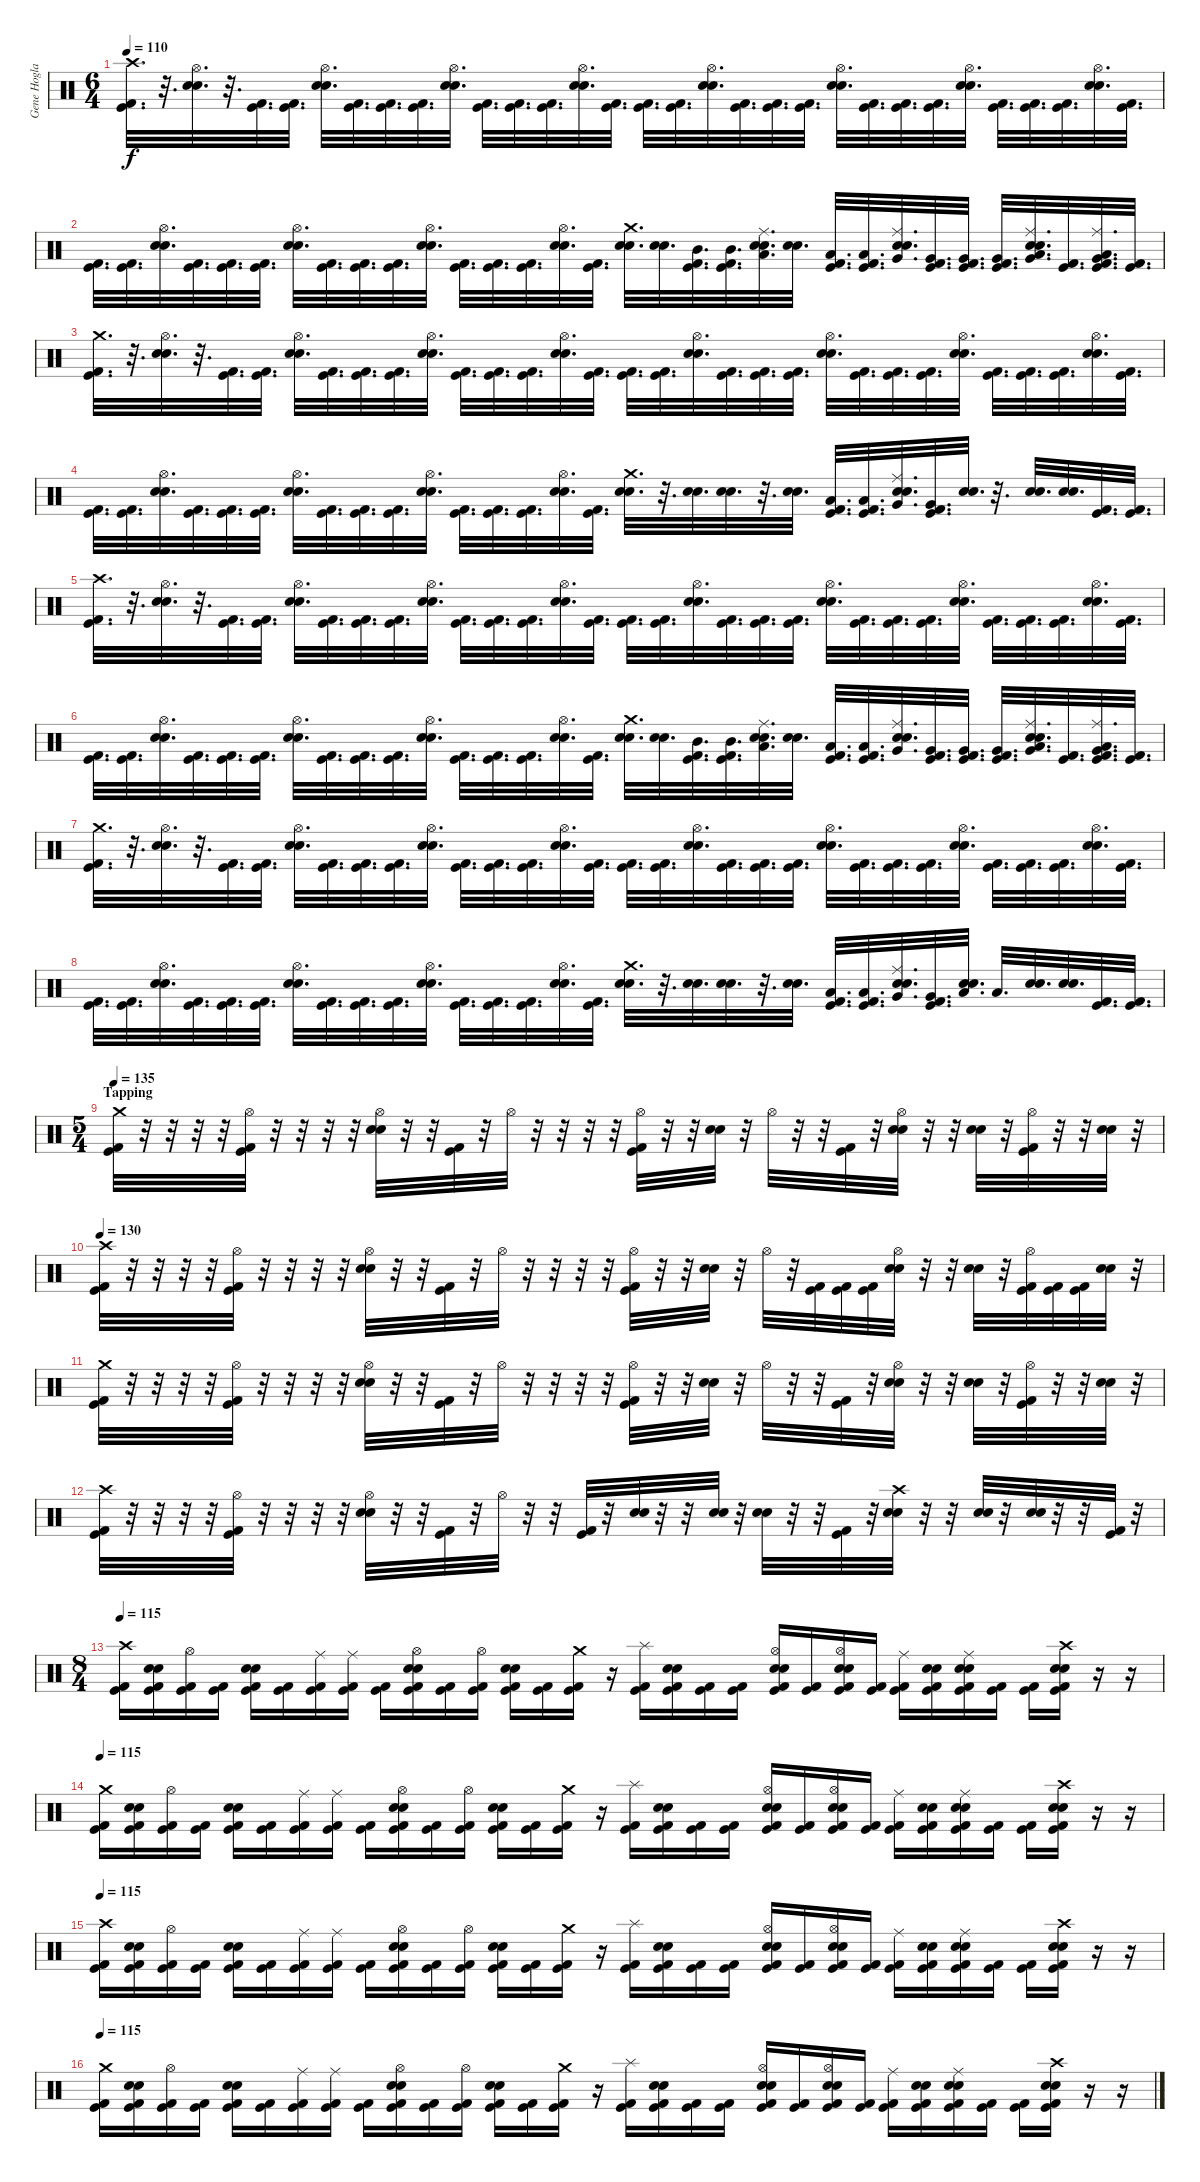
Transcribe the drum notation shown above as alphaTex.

\track ("Gene Hoglan" "Gene Hogla") {instrument percussion}
\staff {score}
\articulation defaults
\ts (6 4)
\tempo 110
\clef neutral
\ks c
("Crash high (hit)" "Kick (hit) 2" "Kick (hit)").32{d dy f} r.32{d} ("Hi-Hat (open)" "Snare (hit) 2" "Electric Snare (hit)").32{d} r.32{d} ("Kick (hit) 2" "Kick (hit)").32{d} ("Kick (hit) 2" "Kick (hit)").32{d} ("Hi-Hat (open)" "Snare (hit) 2" "Electric Snare (hit)").32{d} ("Kick (hit) 2" "Kick (hit)").32{d} ("Kick (hit) 2" "Kick (hit)").32{d} ("Kick (hit) 2" "Kick (hit)").32{d} ("Hi-Hat (open)" "Snare (hit) 2" "Electric Snare (hit)").32{d} ("Kick (hit) 2" "Kick (hit)").32{d} ("Kick (hit) 2" "Kick (hit)").32{d} ("Kick (hit) 2" "Kick (hit)").32{d} ("Hi-Hat (open)" "Snare (hit) 2" "Electric Snare (hit)").32{d} ("Kick (hit) 2" "Kick (hit)").32{d} ("Kick (hit) 2" "Kick (hit)").32{d} ("Kick (hit) 2" "Kick (hit)").32{d} ("Hi-Hat (open)" "Snare (hit) 2" "Electric Snare (hit)").32{d} ("Kick (hit) 2" "Kick (hit)").32{d} ("Kick (hit) 2" "Kick (hit)").32{d} ("Kick (hit) 2" "Kick (hit)").32{d} ("Hi-Hat (open)" "Snare (hit) 2" "Electric Snare (hit)").32{d} ("Kick (hit) 2" "Kick (hit)").32{d} ("Kick (hit) 2" "Kick (hit)").32{d} ("Kick (hit) 2" "Kick (hit)").32{d} ("Hi-Hat (open)" "Snare (hit) 2" "Electric Snare (hit)").32{d} ("Kick (hit) 2" "Kick (hit)").32{d} ("Kick (hit) 2" "Kick (hit)").32{d} ("Kick (hit) 2" "Kick (hit)").32{d} ("Hi-Hat (open)" "Snare (hit) 2" "Electric Snare (hit)").32{d} ("Kick (hit) 2" "Kick (hit)").32{d} |
("Kick (hit) 2" "Kick (hit)").32{d} ("Kick (hit) 2" "Kick (hit)").32{d} ("Hi-Hat (open)" "Snare (hit) 2" "Electric Snare (hit)").32{d} ("Kick (hit) 2" "Kick (hit)").32{d} ("Kick (hit) 2" "Kick (hit)").32{d} ("Kick (hit) 2" "Kick (hit)").32{d} ("Hi-Hat (open)" "Snare (hit) 2" "Electric Snare (hit)").32{d} ("Kick (hit) 2" "Kick (hit)").32{d} ("Kick (hit) 2" "Kick (hit)").32{d} ("Kick (hit) 2" "Kick (hit)").32{d} ("Hi-Hat (open)" "Snare (hit) 2" "Electric Snare (hit)").32{d} ("Kick (hit) 2" "Kick (hit)").32{d} ("Kick (hit) 2" "Kick (hit)").32{d} ("Kick (hit) 2" "Kick (hit)").32{d} ("Hi-Hat (open)" "Snare (hit) 2" "Electric Snare (hit)").32{d} ("Kick (hit) 2" "Kick (hit)").32{d} ("Crash medium (hit)" "Snare (hit) 2" "Electric Snare (hit)").32{d} ("Snare (hit) 2" "Electric Snare (hit)").32{d} ("Mid Tom (hit)" "Kick (hit)" "Kick (hit) 2").32{d} ("Mid Tom (hit)" "Kick (hit) 2" "Kick (hit)").32{d} ("Ride (middle)" "Low Tom (hit)" "Snare (hit) 2" "Electric Snare (hit)").32{d} ("Snare (hit) 2" "Electric Snare (hit)").32{d} ("Low Tom (hit)" "Kick (hit) 2" "Kick (hit)").32{d} ("Low Tom (hit)" "Kick (hit) 2" "Kick (hit)").32{d} ("Ride (middle)" "Very Low Tom (hit)" "Snare (hit) 2" "Electric Snare (hit)").32{d} ("Very Low Tom (hit)" "Kick (hit) 2" "Kick (hit)").32{d} ("Very Low Tom (hit)" "Kick (hit) 2" "Kick (hit)").32{d} ("Very Low Tom (hit)" "Kick (hit) 2" "Kick (hit)").32{d} ("Ride (middle)" "Very Low Tom (hit)" "Low Floor Tom (hit)" "Snare (hit) 2" "Electric Snare (hit)").32{d} ("Kick (hit) 2" "Kick (hit)").32{d} ("Ride (middle)" "Very Low Tom (hit)" "Low Floor Tom (hit)" "Kick (hit) 2" "Kick (hit)").32{d} ("Kick (hit) 2" "Kick (hit)").32{d} |
("Crash medium (hit)" "Kick (hit) 2" "Kick (hit)").32{d} r.32{d} ("Hi-Hat (open)" "Snare (hit) 2" "Electric Snare (hit)").32{d} r.32{d} ("Kick (hit) 2" "Kick (hit)").32{d} ("Kick (hit) 2" "Kick (hit)").32{d} ("Hi-Hat (open)" "Snare (hit) 2" "Electric Snare (hit)").32{d} ("Kick (hit) 2" "Kick (hit)").32{d} ("Kick (hit) 2" "Kick (hit)").32{d} ("Kick (hit) 2" "Kick (hit)").32{d} ("Hi-Hat (open)" "Snare (hit) 2" "Electric Snare (hit)").32{d} ("Kick (hit) 2" "Kick (hit)").32{d} ("Kick (hit) 2" "Kick (hit)").32{d} ("Kick (hit) 2" "Kick (hit)").32{d} ("Hi-Hat (open)" "Snare (hit) 2" "Electric Snare (hit)").32{d} ("Kick (hit) 2" "Kick (hit)").32{d} ("Kick (hit) 2" "Kick (hit)").32{d} ("Kick (hit) 2" "Kick (hit)").32{d} ("Hi-Hat (open)" "Snare (hit) 2" "Electric Snare (hit)").32{d} ("Kick (hit) 2" "Kick (hit)").32{d} ("Kick (hit) 2" "Kick (hit)").32{d} ("Kick (hit) 2" "Kick (hit)").32{d} ("Hi-Hat (open)" "Snare (hit) 2" "Electric Snare (hit)").32{d} ("Kick (hit) 2" "Kick (hit)").32{d} ("Kick (hit) 2" "Kick (hit)").32{d} ("Kick (hit) 2" "Kick (hit)").32{d} ("Hi-Hat (open)" "Snare (hit) 2" "Electric Snare (hit)").32{d} ("Kick (hit) 2" "Kick (hit)").32{d} ("Kick (hit) 2" "Kick (hit)").32{d} ("Kick (hit) 2" "Kick (hit)").32{d} ("Hi-Hat (open)" "Snare (hit) 2" "Electric Snare (hit)").32{d} ("Kick (hit) 2" "Kick (hit)").32{d} |
("Kick (hit) 2" "Kick (hit)").32{d} ("Kick (hit) 2" "Kick (hit)").32{d} ("Hi-Hat (open)" "Snare (hit) 2" "Electric Snare (hit)").32{d} ("Kick (hit) 2" "Kick (hit)").32{d} ("Kick (hit) 2" "Kick (hit)").32{d} ("Kick (hit) 2" "Kick (hit)").32{d} ("Hi-Hat (open)" "Snare (hit) 2" "Electric Snare (hit)").32{d} ("Kick (hit) 2" "Kick (hit)").32{d} ("Kick (hit) 2" "Kick (hit)").32{d} ("Kick (hit) 2" "Kick (hit)").32{d} ("Hi-Hat (open)" "Snare (hit) 2" "Electric Snare (hit)").32{d} ("Kick (hit) 2" "Kick (hit)").32{d} ("Kick (hit) 2" "Kick (hit)").32{d} ("Kick (hit) 2" "Kick (hit)").32{d} ("Hi-Hat (open)" "Snare (hit) 2" "Electric Snare (hit)").32{d} ("Kick (hit) 2" "Kick (hit)").32{d} ("Crash medium (hit)" "Snare (hit) 2" "Electric Snare (hit)").32{d} r.32{d} ("Snare (hit) 2" "Electric Snare (hit)").32{d} ("Snare (hit) 2" "Electric Snare (hit)").32{d} r.32{d} ("Snare (hit) 2" "Electric Snare (hit)").32{d} ("Low Tom (hit)" "Kick (hit) 2" "Kick (hit)").32{d} ("Low Tom (hit)" "Kick (hit) 2" "Kick (hit)").32{d} ("Ride (middle)" "Very Low Tom (hit)" "Snare (hit) 2" "Electric Snare (hit)").32{d} ("Very Low Tom (hit)" "Kick (hit) 2" "Kick (hit)").32{d} ("Snare (hit) 2" "Electric Snare (hit)").32{d} r.32{d} ("Snare (hit) 2" "Electric Snare (hit)").32{d} ("Snare (hit) 2" "Electric Snare (hit)").32{d} ("Kick (hit) 2" "Kick (hit)").32{d} ("Kick (hit) 2" "Kick (hit)").32{d} |
("Crash high (hit)" "Kick (hit) 2" "Kick (hit)").32{d} r.32{d} ("Hi-Hat (open)" "Snare (hit) 2" "Electric Snare (hit)").32{d} r.32{d} ("Kick (hit) 2" "Kick (hit)").32{d} ("Kick (hit) 2" "Kick (hit)").32{d} ("Hi-Hat (open)" "Snare (hit) 2" "Electric Snare (hit)").32{d} ("Kick (hit) 2" "Kick (hit)").32{d} ("Kick (hit) 2" "Kick (hit)").32{d} ("Kick (hit) 2" "Kick (hit)").32{d} ("Hi-Hat (open)" "Snare (hit) 2" "Electric Snare (hit)").32{d} ("Kick (hit) 2" "Kick (hit)").32{d} ("Kick (hit) 2" "Kick (hit)").32{d} ("Kick (hit) 2" "Kick (hit)").32{d} ("Hi-Hat (open)" "Snare (hit) 2" "Electric Snare (hit)").32{d} ("Kick (hit) 2" "Kick (hit)").32{d} ("Kick (hit) 2" "Kick (hit)").32{d} ("Kick (hit) 2" "Kick (hit)").32{d} ("Hi-Hat (open)" "Snare (hit) 2" "Electric Snare (hit)").32{d} ("Kick (hit) 2" "Kick (hit)").32{d} ("Kick (hit) 2" "Kick (hit)").32{d} ("Kick (hit) 2" "Kick (hit)").32{d} ("Hi-Hat (open)" "Snare (hit) 2" "Electric Snare (hit)").32{d} ("Kick (hit) 2" "Kick (hit)").32{d} ("Kick (hit) 2" "Kick (hit)").32{d} ("Kick (hit) 2" "Kick (hit)").32{d} ("Hi-Hat (open)" "Snare (hit) 2" "Electric Snare (hit)").32{d} ("Kick (hit) 2" "Kick (hit)").32{d} ("Kick (hit) 2" "Kick (hit)").32{d} ("Kick (hit) 2" "Kick (hit)").32{d} ("Hi-Hat (open)" "Snare (hit) 2" "Electric Snare (hit)").32{d} ("Kick (hit) 2" "Kick (hit)").32{d} |
("Kick (hit) 2" "Kick (hit)").32{d} ("Kick (hit) 2" "Kick (hit)").32{d} ("Hi-Hat (open)" "Snare (hit) 2" "Electric Snare (hit)").32{d} ("Kick (hit) 2" "Kick (hit)").32{d} ("Kick (hit) 2" "Kick (hit)").32{d} ("Kick (hit) 2" "Kick (hit)").32{d} ("Hi-Hat (open)" "Snare (hit) 2" "Electric Snare (hit)").32{d} ("Kick (hit) 2" "Kick (hit)").32{d} ("Kick (hit) 2" "Kick (hit)").32{d} ("Kick (hit) 2" "Kick (hit)").32{d} ("Hi-Hat (open)" "Snare (hit) 2" "Electric Snare (hit)").32{d} ("Kick (hit) 2" "Kick (hit)").32{d} ("Kick (hit) 2" "Kick (hit)").32{d} ("Kick (hit) 2" "Kick (hit)").32{d} ("Hi-Hat (open)" "Snare (hit) 2" "Electric Snare (hit)").32{d} ("Kick (hit) 2" "Kick (hit)").32{d} ("Crash medium (hit)" "Snare (hit) 2" "Electric Snare (hit)").32{d} ("Snare (hit) 2" "Electric Snare (hit)").32{d} ("Mid Tom (hit)" "Kick (hit)" "Kick (hit) 2").32{d} ("Mid Tom (hit)" "Kick (hit) 2" "Kick (hit)").32{d} ("Ride (middle)" "Low Tom (hit)" "Snare (hit) 2" "Electric Snare (hit)").32{d} ("Snare (hit) 2" "Electric Snare (hit)").32{d} ("Low Tom (hit)" "Kick (hit) 2" "Kick (hit)").32{d} ("Low Tom (hit)" "Kick (hit) 2" "Kick (hit)").32{d} ("Ride (middle)" "Very Low Tom (hit)" "Snare (hit) 2" "Electric Snare (hit)").32{d} ("Very Low Tom (hit)" "Kick (hit) 2" "Kick (hit)").32{d} ("Very Low Tom (hit)" "Kick (hit) 2" "Kick (hit)").32{d} ("Very Low Tom (hit)" "Kick (hit) 2" "Kick (hit)").32{d} ("Ride (middle)" "Very Low Tom (hit)" "Low Floor Tom (hit)" "Snare (hit) 2" "Electric Snare (hit)").32{d} ("Kick (hit) 2" "Kick (hit)").32{d} ("Ride (middle)" "Very Low Tom (hit)" "Low Floor Tom (hit)" "Kick (hit) 2" "Kick (hit)").32{d} ("Kick (hit) 2" "Kick (hit)").32{d} |
("Crash medium (hit)" "Kick (hit) 2" "Kick (hit)").32{d} r.32{d} ("Hi-Hat (open)" "Snare (hit) 2" "Electric Snare (hit)").32{d} r.32{d} ("Kick (hit) 2" "Kick (hit)").32{d} ("Kick (hit) 2" "Kick (hit)").32{d} ("Hi-Hat (open)" "Snare (hit) 2" "Electric Snare (hit)").32{d} ("Kick (hit) 2" "Kick (hit)").32{d} ("Kick (hit) 2" "Kick (hit)").32{d} ("Kick (hit) 2" "Kick (hit)").32{d} ("Hi-Hat (open)" "Snare (hit) 2" "Electric Snare (hit)").32{d} ("Kick (hit) 2" "Kick (hit)").32{d} ("Kick (hit) 2" "Kick (hit)").32{d} ("Kick (hit) 2" "Kick (hit)").32{d} ("Hi-Hat (open)" "Snare (hit) 2" "Electric Snare (hit)").32{d} ("Kick (hit) 2" "Kick (hit)").32{d} ("Kick (hit) 2" "Kick (hit)").32{d} ("Kick (hit) 2" "Kick (hit)").32{d} ("Hi-Hat (open)" "Snare (hit) 2" "Electric Snare (hit)").32{d} ("Kick (hit) 2" "Kick (hit)").32{d} ("Kick (hit) 2" "Kick (hit)").32{d} ("Kick (hit) 2" "Kick (hit)").32{d} ("Hi-Hat (open)" "Snare (hit) 2" "Electric Snare (hit)").32{d} ("Kick (hit) 2" "Kick (hit)").32{d} ("Kick (hit) 2" "Kick (hit)").32{d} ("Kick (hit) 2" "Kick (hit)").32{d} ("Hi-Hat (open)" "Snare (hit) 2" "Electric Snare (hit)").32{d} ("Kick (hit) 2" "Kick (hit)").32{d} ("Kick (hit) 2" "Kick (hit)").32{d} ("Kick (hit) 2" "Kick (hit)").32{d} ("Hi-Hat (open)" "Snare (hit) 2" "Electric Snare (hit)").32{d} ("Kick (hit) 2" "Kick (hit)").32{d} |
("Kick (hit) 2" "Kick (hit)").32{d} ("Kick (hit) 2" "Kick (hit)").32{d} ("Hi-Hat (open)" "Snare (hit) 2" "Electric Snare (hit)").32{d} ("Kick (hit) 2" "Kick (hit)").32{d} ("Kick (hit) 2" "Kick (hit)").32{d} ("Kick (hit) 2" "Kick (hit)").32{d} ("Hi-Hat (open)" "Snare (hit) 2" "Electric Snare (hit)").32{d} ("Kick (hit) 2" "Kick (hit)").32{d} ("Kick (hit) 2" "Kick (hit)").32{d} ("Kick (hit) 2" "Kick (hit)").32{d} ("Hi-Hat (open)" "Snare (hit) 2" "Electric Snare (hit)").32{d} ("Kick (hit) 2" "Kick (hit)").32{d} ("Kick (hit) 2" "Kick (hit)").32{d} ("Kick (hit) 2" "Kick (hit)").32{d} ("Hi-Hat (open)" "Snare (hit) 2" "Electric Snare (hit)").32{d} ("Kick (hit) 2" "Kick (hit)").32{d} ("Crash medium (hit)" "Snare (hit) 2" "Electric Snare (hit)").32{d} r.32{d} ("Snare (hit) 2" "Electric Snare (hit)").32{d} ("Snare (hit) 2" "Electric Snare (hit)").32{d} r.32{d} ("Snare (hit) 2" "Electric Snare (hit)").32{d} ("Low Tom (hit)" "Kick (hit) 2" "Kick (hit)").32{d} ("Low Tom (hit)" "Kick (hit) 2" "Kick (hit)").32{d} ("Ride (middle)" "Very Low Tom (hit)" "Snare (hit) 2" "Electric Snare (hit)").32{d} ("Very Low Tom (hit)" "Kick (hit) 2" "Kick (hit)").32{d} ("Low Tom (hit)" "Snare (hit) 2" "Electric Snare (hit)").32{d} "Low Tom (hit)".32{d} ("Snare (hit) 2" "Electric Snare (hit)").32{d} ("Snare (hit) 2" "Electric Snare (hit)").32{d} ("Kick (hit) 2" "Kick (hit)").32{d} ("Kick (hit) 2" "Kick (hit)").32{d} |
\ts (5 4)
\section ("" "Tapping")
\tempo 130
\tempo 135
("Crash medium (hit)" "Kick (hit)" "Kick (hit) 2").32 r.32 r.32 r.32 r.32 ("Hi-Hat (open)" "Kick (hit)" "Kick (hit) 2").32 r.32 r.32 r.32 r.32 ("Hi-Hat (open)" "Snare (hit) 2" "Electric Snare (hit)").32 r.32 r.32 ("Kick (hit)" "Kick (hit) 2").32 r.32 "Hi-Hat (open)".32 r.32 r.32 r.32 r.32 ("Hi-Hat (open)" "Kick (hit)" "Kick (hit) 2").32 r.32 r.32 ("Snare (hit) 2" "Electric Snare (hit)").32 r.32 "Hi-Hat (open)".32 r.32 r.32 ("Kick (hit)" "Kick (hit) 2").32 r.32 ("Hi-Hat (open)" "Snare (hit) 2" "Electric Snare (hit)").32 r.32 r.32 ("Snare (hit) 2" "Electric Snare (hit)").32 r.32 ("Hi-Hat (open)" "Kick (hit)" "Kick (hit) 2").32 r.32 r.32 ("Snare (hit) 2" "Electric Snare (hit)").32 r.32 |
\tempo 130
("Crash high (hit)" "Kick (hit)" "Kick (hit) 2").32 r.32 r.32 r.32 r.32 ("Hi-Hat (open)" "Kick (hit)" "Kick (hit) 2").32 r.32 r.32 r.32 r.32 ("Hi-Hat (open)" "Snare (hit) 2" "Electric Snare (hit)").32 r.32 r.32 ("Kick (hit)" "Kick (hit) 2").32 r.32 "Hi-Hat (open)".32 r.32 r.32 r.32 r.32 ("Hi-Hat (open)" "Kick (hit)" "Kick (hit) 2").32 r.32 r.32 ("Snare (hit) 2" "Electric Snare (hit)").32 r.32 "Hi-Hat (open)".32 r.32 ("Kick (hit)" "Kick (hit) 2").32 ("Kick (hit)" "Kick (hit) 2").32 ("Kick (hit)" "Kick (hit) 2").32 ("Hi-Hat (open)" "Snare (hit) 2" "Electric Snare (hit)").32 r.32 r.32 ("Snare (hit) 2" "Electric Snare (hit)").32 r.32 ("Hi-Hat (open)" "Kick (hit)" "Kick (hit) 2").32 ("Kick (hit)" "Kick (hit) 2").32 ("Kick (hit)" "Kick (hit) 2").32 ("Snare (hit) 2" "Electric Snare (hit)").32 r.32 |
("Crash medium (hit)" "Kick (hit)" "Kick (hit) 2").32 r.32 r.32 r.32 r.32 ("Hi-Hat (open)" "Kick (hit)" "Kick (hit) 2").32 r.32 r.32 r.32 r.32 ("Hi-Hat (open)" "Snare (hit) 2" "Electric Snare (hit)").32 r.32 r.32 ("Kick (hit)" "Kick (hit) 2").32 r.32 "Hi-Hat (open)".32 r.32 r.32 r.32 r.32 ("Hi-Hat (open)" "Kick (hit)" "Kick (hit) 2").32 r.32 r.32 ("Snare (hit) 2" "Electric Snare (hit)").32 r.32 "Hi-Hat (open)".32 r.32 r.32 ("Kick (hit)" "Kick (hit) 2").32 r.32 ("Hi-Hat (open)" "Snare (hit) 2" "Electric Snare (hit)").32 r.32 r.32 ("Snare (hit) 2" "Electric Snare (hit)").32 r.32 ("Hi-Hat (open)" "Kick (hit)" "Kick (hit) 2").32 r.32 r.32 ("Snare (hit) 2" "Electric Snare (hit)").32 r.32 |
("Crash high (hit)" "Kick (hit)" "Kick (hit) 2").32 r.32 r.32 r.32 r.32 ("Hi-Hat (open)" "Kick (hit)" "Kick (hit) 2").32 r.32 r.32 r.32 r.32 ("Hi-Hat (open)" "Snare (hit) 2" "Electric Snare (hit)").32 r.32 r.32 ("Kick (hit)" "Kick (hit) 2").32 r.32 "Hi-Hat (open)".32 r.32 r.32 ("Kick (hit)" "Kick (hit) 2").32 r.32 ("Snare (hit) 2" "Electric Snare (hit)").32 r.32 r.32 ("Snare (hit) 2" "Electric Snare (hit)").32 r.32 ("Snare (hit) 2" "Electric Snare (hit)").32 r.32 r.32 ("Kick (hit)" "Kick (hit) 2").32 r.32 ("Crash high (hit)" "Snare (hit) 2" "Electric Snare (hit)").32 r.32 r.32 ("Snare (hit) 2" "Electric Snare (hit)").32 r.32 ("Snare (hit) 2" "Electric Snare (hit)").32 r.32 r.32 ("Kick (hit) 2" "Kick (hit)").32 r.32 |
\ts (8 4)
\tempo 115
("Crash high (hit)" "Kick (hit) 2" "Kick (hit)").16 ("Snare (hit) 2" "Electric Snare (hit)" "Kick (hit) 2" "Kick (hit)").16 ("Hi-Hat (open)" "Kick (hit) 2" "Kick (hit)").16 ("Kick (hit) 2" "Kick (hit)").16 ("Snare (hit) 2" "Electric Snare (hit)" "Kick (hit) 2" "Kick (hit)").16 ("Kick (hit) 2" "Kick (hit)").16 ("Ride (middle)" "Kick (hit) 2" "Kick (hit)").16 ("Ride (middle)" "Kick (hit) 2" "Kick (hit)").16 ("Kick (hit) 2" "Kick (hit)").16 ("Hi-Hat (open)" "Snare (hit) 2" "Electric Snare (hit)" "Kick (hit) 2" "Kick (hit)").16 ("Kick (hit) 2" "Kick (hit)").16 ("Hi-Hat (open)" "Kick (hit) 2" "Kick (hit)").16 ("Snare (hit) 2" "Electric Snare (hit)" "Kick (hit) 2" "Kick (hit)").16 ("Kick (hit) 2" "Kick (hit)").16 ("Crash medium (hit)" "Kick (hit) 2" "Kick (hit)").16 r.16 ("Splash (hit)" "Kick (hit) 2" "Kick (hit)").16 ("Snare (hit) 2" "Electric Snare (hit)" "Kick (hit) 2" "Kick (hit)").16 ("Kick (hit) 2" "Kick (hit)").16 ("Kick (hit) 2" "Kick (hit)").16 ("Hi-Hat (open)" "Snare (hit) 2" "Electric Snare (hit)" "Kick (hit) 2" "Kick (hit)").16 ("Kick (hit) 2" "Kick (hit)").16 ("Hi-Hat (open)" "Snare (hit) 2" "Electric Snare (hit)" "Kick (hit) 2" "Kick (hit)").16 ("Kick (hit) 2" "Kick (hit)").16 ("Ride (middle)" "Kick (hit) 2" "Kick (hit)").16 ("Snare (hit) 2" "Electric Snare (hit)" "Kick (hit) 2" "Kick (hit)").16 ("Ride (middle)" "Snare (hit) 2" "Electric Snare (hit)" "Kick (hit) 2" "Kick (hit)").16 ("Kick (hit) 2" "Kick (hit)").16 ("Kick (hit) 2" "Kick (hit)").16 ("Crash high (hit)" "Snare (hit) 2" "Electric Snare (hit)" "Kick (hit) 2" "Kick (hit)").16 r.16 r.16 |
\tempo 115
("Crash medium (hit)" "Kick (hit) 2" "Kick (hit)").16 ("Snare (hit) 2" "Electric Snare (hit)" "Kick (hit) 2" "Kick (hit)").16 ("Hi-Hat (open)" "Kick (hit) 2" "Kick (hit)").16 ("Kick (hit) 2" "Kick (hit)").16 ("Snare (hit) 2" "Electric Snare (hit)" "Kick (hit) 2" "Kick (hit)").16 ("Kick (hit) 2" "Kick (hit)").16 ("Ride (middle)" "Kick (hit) 2" "Kick (hit)").16 ("Ride (middle)" "Kick (hit) 2" "Kick (hit)").16 ("Kick (hit) 2" "Kick (hit)").16 ("Hi-Hat (open)" "Snare (hit) 2" "Electric Snare (hit)" "Kick (hit) 2" "Kick (hit)").16 ("Kick (hit) 2" "Kick (hit)").16 ("Hi-Hat (open)" "Kick (hit) 2" "Kick (hit)").16 ("Snare (hit) 2" "Electric Snare (hit)" "Kick (hit) 2" "Kick (hit)").16 ("Kick (hit) 2" "Kick (hit)").16 ("Crash medium (hit)" "Kick (hit) 2" "Kick (hit)").16 r.16 ("Splash (hit)" "Kick (hit) 2" "Kick (hit)").16 ("Snare (hit) 2" "Electric Snare (hit)" "Kick (hit) 2" "Kick (hit)").16 ("Kick (hit) 2" "Kick (hit)").16 ("Kick (hit) 2" "Kick (hit)").16 ("Hi-Hat (open)" "Snare (hit) 2" "Electric Snare (hit)" "Kick (hit) 2" "Kick (hit)").16 ("Kick (hit) 2" "Kick (hit)").16 ("Hi-Hat (open)" "Snare (hit) 2" "Electric Snare (hit)" "Kick (hit) 2" "Kick (hit)").16 ("Kick (hit) 2" "Kick (hit)").16 ("Ride (middle)" "Kick (hit) 2" "Kick (hit)").16 ("Snare (hit) 2" "Electric Snare (hit)" "Kick (hit) 2" "Kick (hit)").16 ("Ride (middle)" "Snare (hit) 2" "Electric Snare (hit)" "Kick (hit) 2" "Kick (hit)").16 ("Kick (hit) 2" "Kick (hit)").16 ("Kick (hit) 2" "Kick (hit)").16 ("Crash high (hit)" "Snare (hit) 2" "Electric Snare (hit)" "Kick (hit) 2" "Kick (hit)").16 r.16 r.16 |
\tempo 115
("Crash high (hit)" "Kick (hit) 2" "Kick (hit)").16 ("Snare (hit) 2" "Electric Snare (hit)" "Kick (hit) 2" "Kick (hit)").16 ("Hi-Hat (open)" "Kick (hit) 2" "Kick (hit)").16 ("Kick (hit) 2" "Kick (hit)").16 ("Snare (hit) 2" "Electric Snare (hit)" "Kick (hit) 2" "Kick (hit)").16 ("Kick (hit) 2" "Kick (hit)").16 ("Ride (middle)" "Kick (hit) 2" "Kick (hit)").16 ("Ride (middle)" "Kick (hit) 2" "Kick (hit)").16 ("Kick (hit) 2" "Kick (hit)").16 ("Hi-Hat (open)" "Snare (hit) 2" "Electric Snare (hit)" "Kick (hit) 2" "Kick (hit)").16 ("Kick (hit) 2" "Kick (hit)").16 ("Hi-Hat (open)" "Kick (hit) 2" "Kick (hit)").16 ("Snare (hit) 2" "Electric Snare (hit)" "Kick (hit) 2" "Kick (hit)").16 ("Kick (hit) 2" "Kick (hit)").16 ("Crash medium (hit)" "Kick (hit) 2" "Kick (hit)").16 r.16 ("Splash (hit)" "Kick (hit) 2" "Kick (hit)").16 ("Snare (hit) 2" "Electric Snare (hit)" "Kick (hit) 2" "Kick (hit)").16 ("Kick (hit) 2" "Kick (hit)").16 ("Kick (hit) 2" "Kick (hit)").16 ("Hi-Hat (open)" "Snare (hit) 2" "Electric Snare (hit)" "Kick (hit) 2" "Kick (hit)").16 ("Kick (hit) 2" "Kick (hit)").16 ("Hi-Hat (open)" "Snare (hit) 2" "Electric Snare (hit)" "Kick (hit) 2" "Kick (hit)").16 ("Kick (hit) 2" "Kick (hit)").16 ("Ride (middle)" "Kick (hit) 2" "Kick (hit)").16 ("Snare (hit) 2" "Electric Snare (hit)" "Kick (hit) 2" "Kick (hit)").16 ("Ride (middle)" "Snare (hit) 2" "Electric Snare (hit)" "Kick (hit) 2" "Kick (hit)").16 ("Kick (hit) 2" "Kick (hit)").16 ("Kick (hit) 2" "Kick (hit)").16 ("Crash high (hit)" "Snare (hit) 2" "Electric Snare (hit)" "Kick (hit) 2" "Kick (hit)").16 r.16 r.16 |
\tempo 115
("Crash medium (hit)" "Kick (hit) 2" "Kick (hit)").16 ("Snare (hit) 2" "Electric Snare (hit)" "Kick (hit) 2" "Kick (hit)").16 ("Hi-Hat (open)" "Kick (hit) 2" "Kick (hit)").16 ("Kick (hit) 2" "Kick (hit)").16 ("Snare (hit) 2" "Electric Snare (hit)" "Kick (hit) 2" "Kick (hit)").16 ("Kick (hit) 2" "Kick (hit)").16 ("Ride (middle)" "Kick (hit) 2" "Kick (hit)").16 ("Ride (middle)" "Kick (hit) 2" "Kick (hit)").16 ("Kick (hit) 2" "Kick (hit)").16 ("Hi-Hat (open)" "Snare (hit) 2" "Electric Snare (hit)" "Kick (hit) 2" "Kick (hit)").16 ("Kick (hit) 2" "Kick (hit)").16 ("Hi-Hat (open)" "Kick (hit) 2" "Kick (hit)").16 ("Snare (hit) 2" "Electric Snare (hit)" "Kick (hit) 2" "Kick (hit)").16 ("Kick (hit) 2" "Kick (hit)").16 ("Crash medium (hit)" "Kick (hit) 2" "Kick (hit)").16 r.16 ("Splash (hit)" "Kick (hit) 2" "Kick (hit)").16 ("Snare (hit) 2" "Electric Snare (hit)" "Kick (hit) 2" "Kick (hit)").16 ("Kick (hit) 2" "Kick (hit)").16 ("Kick (hit) 2" "Kick (hit)").16 ("Hi-Hat (open)" "Snare (hit) 2" "Electric Snare (hit)" "Kick (hit) 2" "Kick (hit)").16 ("Kick (hit) 2" "Kick (hit)").16 ("Hi-Hat (open)" "Snare (hit) 2" "Electric Snare (hit)" "Kick (hit) 2" "Kick (hit)").16 ("Kick (hit) 2" "Kick (hit)").16 ("Ride (middle)" "Kick (hit) 2" "Kick (hit)").16 ("Snare (hit) 2" "Electric Snare (hit)" "Kick (hit) 2" "Kick (hit)").16 ("Ride (middle)" "Snare (hit) 2" "Electric Snare (hit)" "Kick (hit) 2" "Kick (hit)").16 ("Kick (hit) 2" "Kick (hit)").16 ("Kick (hit) 2" "Kick (hit)").16 ("Crash high (hit)" "Snare (hit) 2" "Electric Snare (hit)" "Kick (hit) 2" "Kick (hit)").16 r.16 r.16
